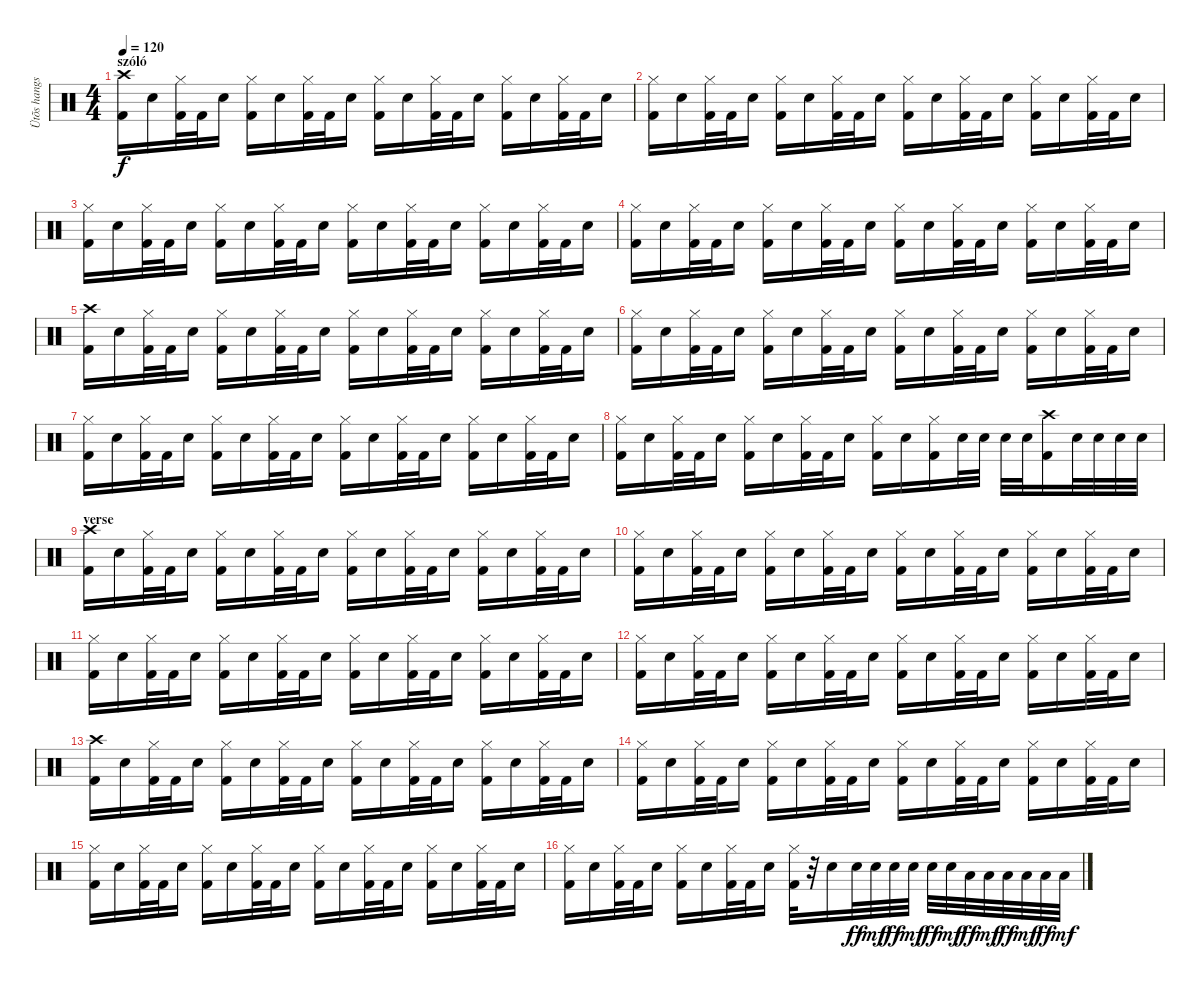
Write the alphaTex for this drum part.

\track ("Ütõs hangszer" "Ütõs hangs") {instrument percussion}
\staff {score}
\articulation defaults
\ts (4 4)
\section ("" "szóló")
\tempo 120
\clef neutral
\ks c
("Crash high (hit)" "Kick (hit) 2").16{dy f} "Snare (hit) 2".16 ("Hi-Hat (closed)" "Kick (hit) 2").32 "Kick (hit) 2".32 "Snare (hit) 2".16 ("Hi-Hat (closed)" "Kick (hit) 2").16 "Snare (hit) 2".16 ("Hi-Hat (closed)" "Kick (hit) 2").32 "Kick (hit) 2".32 "Snare (hit) 2".16 ("Hi-Hat (closed)" "Kick (hit) 2").16 "Snare (hit) 2".16 ("Hi-Hat (closed)" "Kick (hit) 2").32 "Kick (hit) 2".32 "Snare (hit) 2".16 ("Hi-Hat (closed)" "Kick (hit) 2").16 "Snare (hit) 2".16 ("Hi-Hat (closed)" "Kick (hit) 2").32 "Kick (hit) 2".32 "Snare (hit) 2".16 |
("Hi-Hat (closed)" "Kick (hit) 2").16 "Snare (hit) 2".16 ("Hi-Hat (closed)" "Kick (hit) 2").32 "Kick (hit) 2".32 "Snare (hit) 2".16 ("Hi-Hat (closed)" "Kick (hit) 2").16 "Snare (hit) 2".16 ("Hi-Hat (closed)" "Kick (hit) 2").32 "Kick (hit) 2".32 "Snare (hit) 2".16 ("Hi-Hat (closed)" "Kick (hit) 2").16 "Snare (hit) 2".16 ("Hi-Hat (closed)" "Kick (hit) 2").32 "Kick (hit) 2".32 "Snare (hit) 2".16 ("Hi-Hat (closed)" "Kick (hit) 2").16 "Snare (hit) 2".16 ("Hi-Hat (closed)" "Kick (hit) 2").32 "Kick (hit) 2".32 "Snare (hit) 2".16 |
("Hi-Hat (closed)" "Kick (hit) 2").16 "Snare (hit) 2".16 ("Hi-Hat (closed)" "Kick (hit) 2").32 "Kick (hit) 2".32 "Snare (hit) 2".16 ("Hi-Hat (closed)" "Kick (hit) 2").16 "Snare (hit) 2".16 ("Hi-Hat (closed)" "Kick (hit) 2").32 "Kick (hit) 2".32 "Snare (hit) 2".16 ("Hi-Hat (closed)" "Kick (hit) 2").16 "Snare (hit) 2".16 ("Hi-Hat (closed)" "Kick (hit) 2").32 "Kick (hit) 2".32 "Snare (hit) 2".16 ("Hi-Hat (closed)" "Kick (hit) 2").16 "Snare (hit) 2".16 ("Hi-Hat (closed)" "Kick (hit) 2").32 "Kick (hit) 2".32 "Snare (hit) 2".16 |
("Hi-Hat (closed)" "Kick (hit) 2").16 "Snare (hit) 2".16 ("Hi-Hat (closed)" "Kick (hit) 2").32 "Kick (hit) 2".32 "Snare (hit) 2".16 ("Hi-Hat (closed)" "Kick (hit) 2").16 "Snare (hit) 2".16 ("Hi-Hat (closed)" "Kick (hit) 2").32 "Kick (hit) 2".32 "Snare (hit) 2".16 ("Hi-Hat (closed)" "Kick (hit) 2").16 "Snare (hit) 2".16 ("Hi-Hat (closed)" "Kick (hit) 2").32 "Kick (hit) 2".32 "Snare (hit) 2".16 ("Hi-Hat (closed)" "Kick (hit) 2").16 "Snare (hit) 2".16 ("Hi-Hat (closed)" "Kick (hit) 2").32 "Kick (hit) 2".32 "Snare (hit) 2".16 |
("Crash high (hit)" "Kick (hit) 2").16 "Snare (hit) 2".16 ("Hi-Hat (closed)" "Kick (hit) 2").32 "Kick (hit) 2".32 "Snare (hit) 2".16 ("Hi-Hat (closed)" "Kick (hit) 2").16 "Snare (hit) 2".16 ("Hi-Hat (closed)" "Kick (hit) 2").32 "Kick (hit) 2".32 "Snare (hit) 2".16 ("Hi-Hat (closed)" "Kick (hit) 2").16 "Snare (hit) 2".16 ("Hi-Hat (closed)" "Kick (hit) 2").32 "Kick (hit) 2".32 "Snare (hit) 2".16 ("Hi-Hat (closed)" "Kick (hit) 2").16 "Snare (hit) 2".16 ("Hi-Hat (closed)" "Kick (hit) 2").32 "Kick (hit) 2".32 "Snare (hit) 2".16 |
("Hi-Hat (closed)" "Kick (hit) 2").16 "Snare (hit) 2".16 ("Hi-Hat (closed)" "Kick (hit) 2").32 "Kick (hit) 2".32 "Snare (hit) 2".16 ("Hi-Hat (closed)" "Kick (hit) 2").16 "Snare (hit) 2".16 ("Hi-Hat (closed)" "Kick (hit) 2").32 "Kick (hit) 2".32 "Snare (hit) 2".16 ("Hi-Hat (closed)" "Kick (hit) 2").16 "Snare (hit) 2".16 ("Hi-Hat (closed)" "Kick (hit) 2").32 "Kick (hit) 2".32 "Snare (hit) 2".16 ("Hi-Hat (closed)" "Kick (hit) 2").16 "Snare (hit) 2".16 ("Hi-Hat (closed)" "Kick (hit) 2").32 "Kick (hit) 2".32 "Snare (hit) 2".16 |
("Hi-Hat (closed)" "Kick (hit) 2").16 "Snare (hit) 2".16 ("Hi-Hat (closed)" "Kick (hit) 2").32 "Kick (hit) 2".32 "Snare (hit) 2".16 ("Hi-Hat (closed)" "Kick (hit) 2").16 "Snare (hit) 2".16 ("Hi-Hat (closed)" "Kick (hit) 2").32 "Kick (hit) 2".32 "Snare (hit) 2".16 ("Hi-Hat (closed)" "Kick (hit) 2").16 "Snare (hit) 2".16 ("Hi-Hat (closed)" "Kick (hit) 2").32 "Kick (hit) 2".32 "Snare (hit) 2".16 ("Hi-Hat (closed)" "Kick (hit) 2").16 "Snare (hit) 2".16 ("Hi-Hat (closed)" "Kick (hit) 2").32 "Kick (hit) 2".32 "Snare (hit) 2".16 |
("Hi-Hat (closed)" "Kick (hit) 2").16 "Snare (hit) 2".16 ("Hi-Hat (closed)" "Kick (hit) 2").32 "Kick (hit) 2".32 "Snare (hit) 2".16 ("Hi-Hat (closed)" "Kick (hit) 2").16 "Snare (hit) 2".16 ("Hi-Hat (closed)" "Kick (hit) 2").32 "Kick (hit) 2".32 "Snare (hit) 2".16 ("Hi-Hat (closed)" "Kick (hit) 2").16 "Snare (hit) 2".16 ("Hi-Hat (closed)" "Kick (hit) 2").16 "Snare (hit) 2".32 "Snare (hit) 2".32 "Snare (hit) 2".32 "Snare (hit) 2".32 ("Crash high (hit)" "Kick (hit) 2").16 "Snare (hit) 2".32 "Snare (hit) 2".32 "Snare (hit) 2".32 "Snare (hit) 2".32 |
\section ("" "verse")
("Crash high (hit)" "Kick (hit) 2").16 "Snare (hit) 2".16 ("Hi-Hat (closed)" "Kick (hit) 2").32 "Kick (hit) 2".32 "Snare (hit) 2".16 ("Hi-Hat (closed)" "Kick (hit) 2").16 "Snare (hit) 2".16 ("Hi-Hat (closed)" "Kick (hit) 2").32 "Kick (hit) 2".32 "Snare (hit) 2".16 ("Hi-Hat (closed)" "Kick (hit) 2").16 "Snare (hit) 2".16 ("Hi-Hat (closed)" "Kick (hit) 2").32 "Kick (hit) 2".32 "Snare (hit) 2".16 ("Hi-Hat (closed)" "Kick (hit) 2").16 "Snare (hit) 2".16 ("Hi-Hat (closed)" "Kick (hit) 2").32 "Kick (hit) 2".32 "Snare (hit) 2".16 |
("Hi-Hat (closed)" "Kick (hit) 2").16 "Snare (hit) 2".16 ("Hi-Hat (closed)" "Kick (hit) 2").32 "Kick (hit) 2".32 "Snare (hit) 2".16 ("Hi-Hat (closed)" "Kick (hit) 2").16 "Snare (hit) 2".16 ("Hi-Hat (closed)" "Kick (hit) 2").32 "Kick (hit) 2".32 "Snare (hit) 2".16 ("Hi-Hat (closed)" "Kick (hit) 2").16 "Snare (hit) 2".16 ("Hi-Hat (closed)" "Kick (hit) 2").32 "Kick (hit) 2".32 "Snare (hit) 2".16 ("Hi-Hat (closed)" "Kick (hit) 2").16 "Snare (hit) 2".16 ("Hi-Hat (closed)" "Kick (hit) 2").32 "Kick (hit) 2".32 "Snare (hit) 2".16 |
("Hi-Hat (closed)" "Kick (hit) 2").16 "Snare (hit) 2".16 ("Hi-Hat (closed)" "Kick (hit) 2").32 "Kick (hit) 2".32 "Snare (hit) 2".16 ("Hi-Hat (closed)" "Kick (hit) 2").16 "Snare (hit) 2".16 ("Hi-Hat (closed)" "Kick (hit) 2").32 "Kick (hit) 2".32 "Snare (hit) 2".16 ("Hi-Hat (closed)" "Kick (hit) 2").16 "Snare (hit) 2".16 ("Hi-Hat (closed)" "Kick (hit) 2").32 "Kick (hit) 2".32 "Snare (hit) 2".16 ("Hi-Hat (closed)" "Kick (hit) 2").16 "Snare (hit) 2".16 ("Hi-Hat (closed)" "Kick (hit) 2").32 "Kick (hit) 2".32 "Snare (hit) 2".16 |
("Hi-Hat (closed)" "Kick (hit) 2").16 "Snare (hit) 2".16 ("Hi-Hat (closed)" "Kick (hit) 2").32 "Kick (hit) 2".32 "Snare (hit) 2".16 ("Hi-Hat (closed)" "Kick (hit) 2").16 "Snare (hit) 2".16 ("Hi-Hat (closed)" "Kick (hit) 2").32 "Kick (hit) 2".32 "Snare (hit) 2".16 ("Hi-Hat (closed)" "Kick (hit) 2").16 "Snare (hit) 2".16 ("Hi-Hat (closed)" "Kick (hit) 2").32 "Kick (hit) 2".32 "Snare (hit) 2".16 ("Hi-Hat (closed)" "Kick (hit) 2").16 "Snare (hit) 2".16 ("Hi-Hat (closed)" "Kick (hit) 2").32 "Kick (hit) 2".32 "Snare (hit) 2".16 |
("Crash high (hit)" "Kick (hit) 2").16 "Snare (hit) 2".16 ("Hi-Hat (closed)" "Kick (hit) 2").32 "Kick (hit) 2".32 "Snare (hit) 2".16 ("Hi-Hat (closed)" "Kick (hit) 2").16 "Snare (hit) 2".16 ("Hi-Hat (closed)" "Kick (hit) 2").32 "Kick (hit) 2".32 "Snare (hit) 2".16 ("Hi-Hat (closed)" "Kick (hit) 2").16 "Snare (hit) 2".16 ("Hi-Hat (closed)" "Kick (hit) 2").32 "Kick (hit) 2".32 "Snare (hit) 2".16 ("Hi-Hat (closed)" "Kick (hit) 2").16 "Snare (hit) 2".16 ("Hi-Hat (closed)" "Kick (hit) 2").32 "Kick (hit) 2".32 "Snare (hit) 2".16 |
("Hi-Hat (closed)" "Kick (hit) 2").16 "Snare (hit) 2".16 ("Hi-Hat (closed)" "Kick (hit) 2").32 "Kick (hit) 2".32 "Snare (hit) 2".16 ("Hi-Hat (closed)" "Kick (hit) 2").16 "Snare (hit) 2".16 ("Hi-Hat (closed)" "Kick (hit) 2").32 "Kick (hit) 2".32 "Snare (hit) 2".16 ("Hi-Hat (closed)" "Kick (hit) 2").16 "Snare (hit) 2".16 ("Hi-Hat (closed)" "Kick (hit) 2").32 "Kick (hit) 2".32 "Snare (hit) 2".16 ("Hi-Hat (closed)" "Kick (hit) 2").16 "Snare (hit) 2".16 ("Hi-Hat (closed)" "Kick (hit) 2").32 "Kick (hit) 2".32 "Snare (hit) 2".16 |
("Hi-Hat (closed)" "Kick (hit) 2").16 "Snare (hit) 2".16 ("Hi-Hat (closed)" "Kick (hit) 2").32 "Kick (hit) 2".32 "Snare (hit) 2".16 ("Hi-Hat (closed)" "Kick (hit) 2").16 "Snare (hit) 2".16 ("Hi-Hat (closed)" "Kick (hit) 2").32 "Kick (hit) 2".32 "Snare (hit) 2".16 ("Hi-Hat (closed)" "Kick (hit) 2").16 "Snare (hit) 2".16 ("Hi-Hat (closed)" "Kick (hit) 2").32 "Kick (hit) 2".32 "Snare (hit) 2".16 ("Hi-Hat (closed)" "Kick (hit) 2").16 "Snare (hit) 2".16 ("Hi-Hat (closed)" "Kick (hit) 2").32 "Kick (hit) 2".32 "Snare (hit) 2".16 |
("Hi-Hat (closed)" "Kick (hit) 2").16 "Snare (hit) 2".16 ("Hi-Hat (closed)" "Kick (hit) 2").32 "Kick (hit) 2".32 "Snare (hit) 2".16 ("Hi-Hat (closed)" "Kick (hit) 2").16 "Snare (hit) 2".16 ("Hi-Hat (closed)" "Kick (hit) 2").32 "Kick (hit) 2".32 "Snare (hit) 2".16 ("Hi-Hat (closed)" "Kick (hit) 2").32 r.32 "Snare (hit) 2".16 "Snare (hit) 2".32{dy ff} "Snare (hit) 2".32{dy mf} "Snare (hit) 2".32{dy ff} "Snare (hit) 2".32{dy mf} "Snare (hit) 2".32{dy ff} "Snare (hit) 2".32{dy mf} "Low Tom (hit)".32{dy ff} "Low Tom (hit)".32{dy mf} "Low Tom (hit)".32{dy ff} "Low Tom (hit)".32{dy mf} "Low Tom (hit)".32{dy ff} "Low Tom (hit)".32{dy mf}
